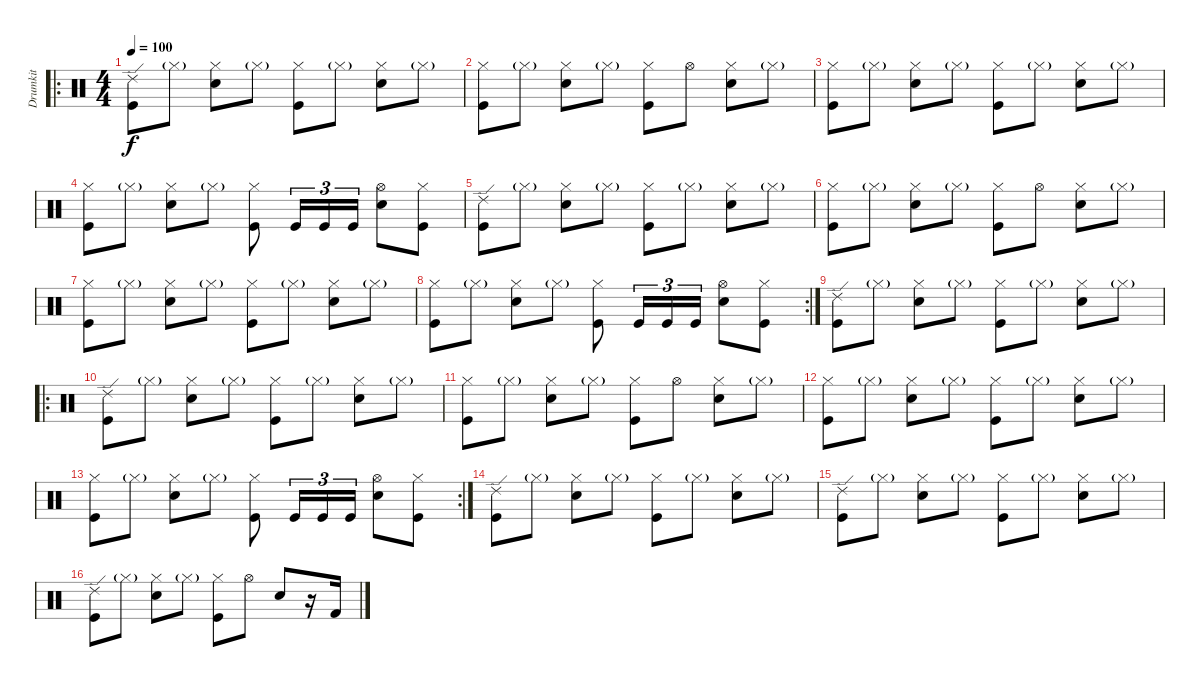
\track ("Drumkit" "Drumkit") {instrument percussion}
\staff {score}
\articulation defaults
\ro
\ts (4 4)
\tempo 100
\clef neutral
\ks c
("Ride (edge) 2" "Kick (hit)").8{dy f} "Hi-Hat (closed)"{g}.8 ("Snare (hit) 2" "Hi-Hat (closed)").8 "Hi-Hat (closed)"{g}.8 ("Kick (hit)" "Hi-Hat (closed)").8 "Hi-Hat (closed)"{g}.8 ("Snare (hit) 2" "Hi-Hat (closed)").8 "Hi-Hat (closed)"{g}.8 |
("Hi-Hat (closed)" "Kick (hit)").8 "Hi-Hat (closed)"{g}.8 ("Hi-Hat (closed)" "Snare (hit) 2").8 "Hi-Hat (closed)"{g}.8 ("Hi-Hat (closed)" "Kick (hit)").8 "Hi-Hat (open)".8 ("Hi-Hat (closed)" "Snare (hit) 2").8 "Hi-Hat (closed)"{g}.8 |
("Kick (hit)" "Hi-Hat (closed)").8 "Hi-Hat (closed)"{g}.8 ("Snare (hit) 2" "Hi-Hat (closed)").8 "Hi-Hat (closed)"{g}.8 ("Kick (hit)" "Hi-Hat (closed)").8 "Hi-Hat (closed)"{g}.8 ("Snare (hit) 2" "Hi-Hat (closed)").8 "Hi-Hat (closed)"{g}.8 |
("Hi-Hat (closed)" "Kick (hit)").8 "Hi-Hat (closed)"{g}.8 ("Hi-Hat (closed)" "Snare (hit) 2").8 "Hi-Hat (closed)"{g}.8 ("Hi-Hat (closed)" "Kick (hit)").8 "Kick (hit)".16{tu (3 2)} "Kick (hit)".16{tu (3 2)} "Kick (hit)".16{tu (3 2)} ("Hi-Hat (open)" "Snare (hit) 2").8 ("Hi-Hat (closed)" "Kick (hit)").8 |
("Ride (edge) 2" "Kick (hit)").8 "Hi-Hat (closed)"{g}.8 ("Snare (hit) 2" "Hi-Hat (closed)").8 "Hi-Hat (closed)"{g}.8 ("Kick (hit)" "Hi-Hat (closed)").8 "Hi-Hat (closed)"{g}.8 ("Snare (hit) 2" "Hi-Hat (closed)").8 "Hi-Hat (closed)"{g}.8 |
("Hi-Hat (closed)" "Kick (hit)").8 "Hi-Hat (closed)"{g}.8 ("Hi-Hat (closed)" "Snare (hit) 2").8 "Hi-Hat (closed)"{g}.8 ("Hi-Hat (closed)" "Kick (hit)").8 "Hi-Hat (open)".8 ("Hi-Hat (closed)" "Snare (hit) 2").8 "Hi-Hat (closed)"{g}.8 |
("Kick (hit)" "Hi-Hat (closed)").8 "Hi-Hat (closed)"{g}.8 ("Snare (hit) 2" "Hi-Hat (closed)").8 "Hi-Hat (closed)"{g}.8 ("Kick (hit)" "Hi-Hat (closed)").8 "Hi-Hat (closed)"{g}.8 ("Snare (hit) 2" "Hi-Hat (closed)").8 "Hi-Hat (closed)"{g}.8 |
\rc 2
("Hi-Hat (closed)" "Kick (hit)").8 "Hi-Hat (closed)"{g}.8 ("Hi-Hat (closed)" "Snare (hit) 2").8 "Hi-Hat (closed)"{g}.8 ("Hi-Hat (closed)" "Kick (hit)").8 "Kick (hit)".16{tu (3 2)} "Kick (hit)".16{tu (3 2)} "Kick (hit)".16{tu (3 2)} ("Hi-Hat (open)" "Snare (hit) 2").8 ("Hi-Hat (closed)" "Kick (hit)").8 |
("Ride (edge) 2" "Kick (hit)").8 "Hi-Hat (closed)"{g}.8 ("Snare (hit) 2" "Hi-Hat (closed)").8 "Hi-Hat (closed)"{g}.8 ("Kick (hit)" "Hi-Hat (closed)").8 "Hi-Hat (closed)"{g}.8 ("Snare (hit) 2" "Hi-Hat (closed)").8 "Hi-Hat (closed)"{g}.8 |
\ro
("Ride (edge) 2" "Kick (hit)").8 "Hi-Hat (closed)"{g}.8 ("Snare (hit) 2" "Hi-Hat (closed)").8 "Hi-Hat (closed)"{g}.8 ("Kick (hit)" "Hi-Hat (closed)").8 "Hi-Hat (closed)"{g}.8 ("Snare (hit) 2" "Hi-Hat (closed)").8 "Hi-Hat (closed)"{g}.8 |
("Hi-Hat (closed)" "Kick (hit)").8 "Hi-Hat (closed)"{g}.8 ("Hi-Hat (closed)" "Snare (hit) 2").8 "Hi-Hat (closed)"{g}.8 ("Hi-Hat (closed)" "Kick (hit)").8 "Hi-Hat (open)".8 ("Hi-Hat (closed)" "Snare (hit) 2").8 "Hi-Hat (closed)"{g}.8 |
("Kick (hit)" "Hi-Hat (closed)").8 "Hi-Hat (closed)"{g}.8 ("Snare (hit) 2" "Hi-Hat (closed)").8 "Hi-Hat (closed)"{g}.8 ("Kick (hit)" "Hi-Hat (closed)").8 "Hi-Hat (closed)"{g}.8 ("Snare (hit) 2" "Hi-Hat (closed)").8 "Hi-Hat (closed)"{g}.8 |
\rc 2
("Hi-Hat (closed)" "Kick (hit)").8 "Hi-Hat (closed)"{g}.8 ("Hi-Hat (closed)" "Snare (hit) 2").8 "Hi-Hat (closed)"{g}.8 ("Hi-Hat (closed)" "Kick (hit)").8 "Kick (hit)".16{tu (3 2)} "Kick (hit)".16{tu (3 2)} "Kick (hit)".16{tu (3 2)} ("Hi-Hat (open)" "Snare (hit) 2").8 ("Hi-Hat (closed)" "Kick (hit)").8 |
("Ride (edge) 2" "Kick (hit)").8 "Hi-Hat (closed)"{g}.8 ("Snare (hit) 2" "Hi-Hat (closed)").8 "Hi-Hat (closed)"{g}.8 ("Kick (hit)" "Hi-Hat (closed)").8 "Hi-Hat (closed)"{g}.8 ("Snare (hit) 2" "Hi-Hat (closed)").8 "Hi-Hat (closed)"{g}.8 |
("Ride (edge) 2" "Kick (hit)").8 "Hi-Hat (closed)"{g}.8 ("Snare (hit) 2" "Hi-Hat (closed)").8 "Hi-Hat (closed)"{g}.8 ("Kick (hit)" "Hi-Hat (closed)").8 "Hi-Hat (closed)"{g}.8 ("Snare (hit) 2" "Hi-Hat (closed)").8 "Hi-Hat (closed)"{g}.8 |
("Ride (edge) 2" "Kick (hit)").8 "Hi-Hat (closed)"{g}.8 ("Snare (hit) 2" "Hi-Hat (closed)").8 "Hi-Hat (closed)"{g}.8 ("Kick (hit)" "Hi-Hat (closed)").8 "Hi-Hat (open)".8 "Electric Snare (hit)".8 r.16 "Kick (hit) 2".16
